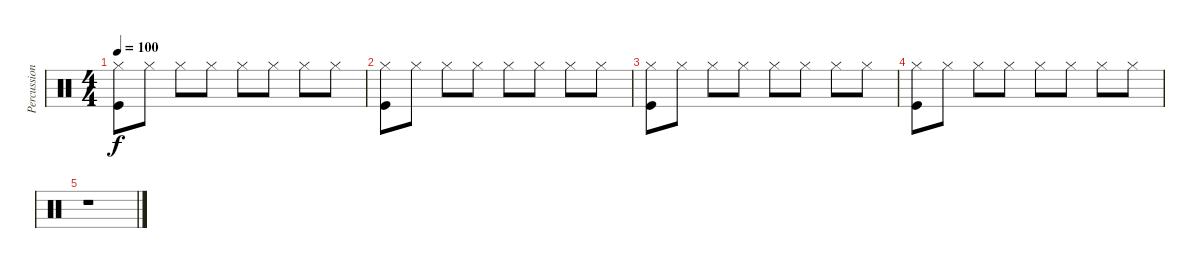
\track ("Percussion" "Percussion") {instrument percussion}
\staff {score}
\articulation defaults
\ts (4 4)
\tempo 100
\clef neutral
\ks c
("Hi-Hat (closed)" "Kick (hit)").8{dy f} "Hi-Hat (closed)".8 "Hi-Hat (closed)".8 "Hi-Hat (closed)".8 "Hi-Hat (closed)".8 "Hi-Hat (closed)".8 "Hi-Hat (closed)".8 "Hi-Hat (closed)".8 |
("Hi-Hat (closed)" "Kick (hit)").8 "Hi-Hat (closed)".8 "Hi-Hat (closed)".8 "Hi-Hat (closed)".8 "Hi-Hat (closed)".8 "Hi-Hat (closed)".8 "Hi-Hat (closed)".8 "Hi-Hat (closed)".8 |
("Hi-Hat (closed)" "Kick (hit)").8 "Hi-Hat (closed)".8 "Hi-Hat (closed)".8 "Hi-Hat (closed)".8 "Hi-Hat (closed)".8 "Hi-Hat (closed)".8 "Hi-Hat (closed)".8 "Hi-Hat (closed)".8 |
("Hi-Hat (closed)" "Kick (hit)").8 "Hi-Hat (closed)".8 "Hi-Hat (closed)".8 "Hi-Hat (closed)".8 "Hi-Hat (closed)".8 "Hi-Hat (closed)".8 "Hi-Hat (closed)".8 "Hi-Hat (closed)".8 |
r.1
